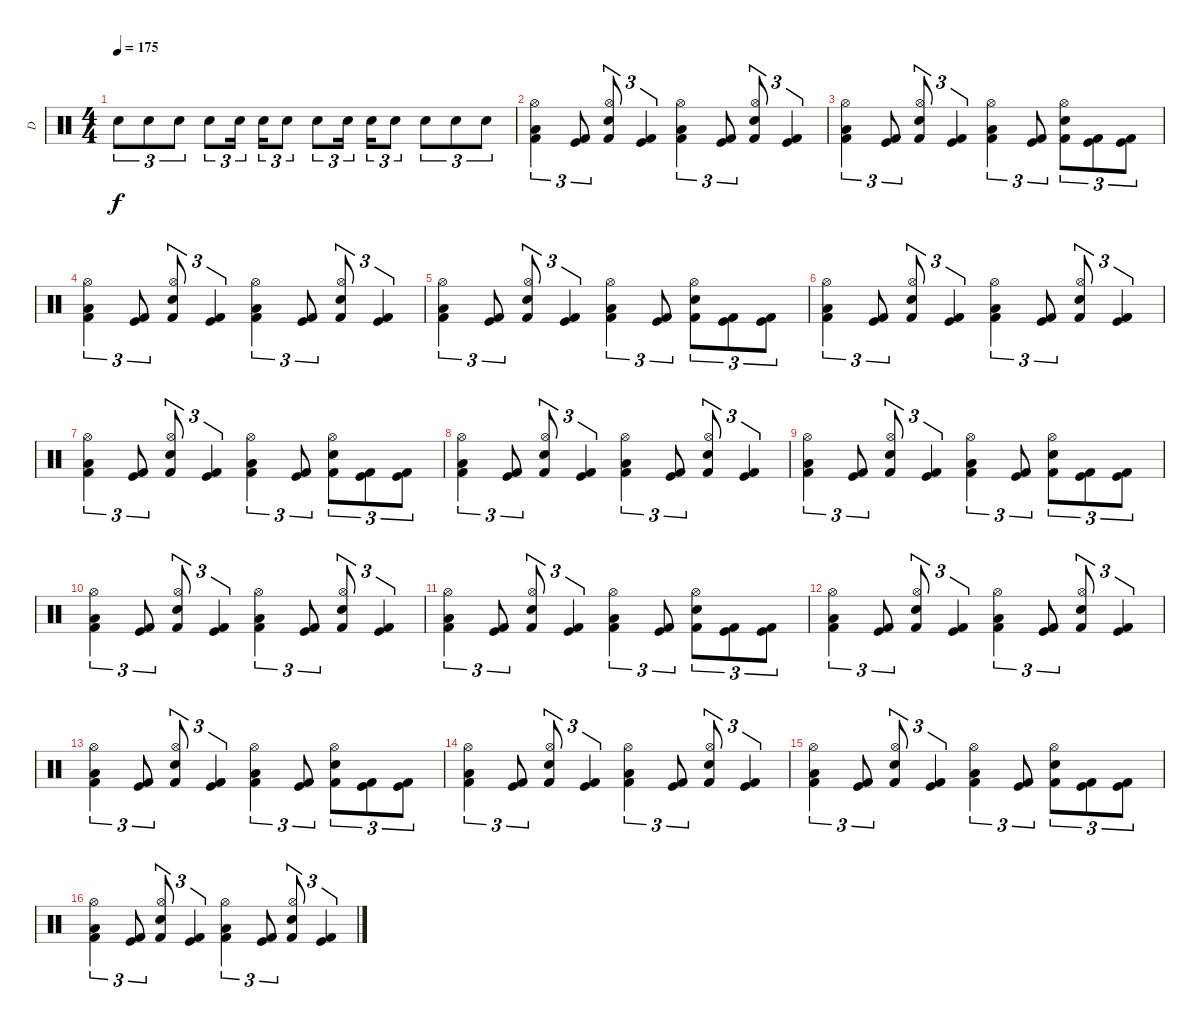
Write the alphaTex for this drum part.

\track ("D" "D") {instrument percussion}
\staff {score}
\articulation defaults
\ts (4 4)
\tempo 175
\clef neutral
\ks c "Electric Snare (hit)".8{tu (3 2) dy f} "Electric Snare (hit)".8{tu (3 2)} "Electric Snare (hit)".8{tu (3 2)} "Electric Snare (hit)".8{tu (3 2)} "Electric Snare (hit)".16{tu (3 2)} "Electric Snare (hit)".16{tu (3 2)} "Electric Snare (hit)".8{tu (3 2)} "Electric Snare (hit)".8{tu (3 2)} "Electric Snare (hit)".16{tu (3 2)} "Electric Snare (hit)".16{tu (3 2)} "Electric Snare (hit)".8{tu (3 2)} "Electric Snare (hit)".8{tu (3 2)} "Electric Snare (hit)".8{tu (3 2)} "Electric Snare (hit)".8{tu (3 2)}
|
("Hi-Hat (open)" "Low Floor Tom (hit)" "Kick (hit) 2").4{tu (3 2)} ("Kick (hit)" "Kick (hit) 2").8{tu (3 2)} ("Hi-Hat (open)" "Electric Snare (hit)" "Kick (hit) 2").8{tu (3 2)} ("Kick (hit)" "Kick (hit) 2").4{tu (3 2)} ("Hi-Hat (open)" "Low Floor Tom (hit)" "Kick (hit) 2").4{tu (3 2)} ("Kick (hit)" "Kick (hit) 2").8{tu (3 2)} ("Hi-Hat (open)" "Electric Snare (hit)" "Kick (hit) 2").8{tu (3 2)} ("Kick (hit)" "Kick (hit) 2").4{tu (3 2)} |
("Hi-Hat (open)" "Low Floor Tom (hit)" "Kick (hit) 2").4{tu (3 2)} ("Kick (hit)" "Kick (hit) 2").8{tu (3 2)} ("Hi-Hat (open)" "Electric Snare (hit)" "Kick (hit) 2").8{tu (3 2)} ("Kick (hit)" "Kick (hit) 2").4{tu (3 2)} ("Hi-Hat (open)" "Low Floor Tom (hit)" "Kick (hit) 2").4{tu (3 2)} ("Kick (hit)" "Kick (hit) 2").8{tu (3 2)} ("Hi-Hat (open)" "Snare (hit) 2" "Kick (hit) 2").8{tu (3 2)} ("Kick (hit)" "Kick (hit) 2").8{tu (3 2)} ("Kick (hit)" "Kick (hit) 2").8{tu (3 2)} |
("Hi-Hat (open)" "Low Floor Tom (hit)" "Kick (hit) 2").4{tu (3 2)} ("Kick (hit)" "Kick (hit) 2").8{tu (3 2)} ("Hi-Hat (open)" "Electric Snare (hit)" "Kick (hit) 2").8{tu (3 2)} ("Kick (hit)" "Kick (hit) 2").4{tu (3 2)} ("Hi-Hat (open)" "Low Floor Tom (hit)" "Kick (hit) 2").4{tu (3 2)} ("Kick (hit)" "Kick (hit) 2").8{tu (3 2)} ("Hi-Hat (open)" "Electric Snare (hit)" "Kick (hit) 2").8{tu (3 2)} ("Kick (hit)" "Kick (hit) 2").4{tu (3 2)} |
("Hi-Hat (open)" "Low Floor Tom (hit)" "Kick (hit) 2").4{tu (3 2)} ("Kick (hit)" "Kick (hit) 2").8{tu (3 2)} ("Hi-Hat (open)" "Electric Snare (hit)" "Kick (hit) 2").8{tu (3 2)} ("Kick (hit)" "Kick (hit) 2").4{tu (3 2)} ("Hi-Hat (open)" "Low Floor Tom (hit)" "Kick (hit) 2").4{tu (3 2)} ("Kick (hit)" "Kick (hit) 2").8{tu (3 2)} ("Hi-Hat (open)" "Snare (hit) 2" "Kick (hit) 2").8{tu (3 2)} ("Kick (hit)" "Kick (hit) 2").8{tu (3 2)} ("Kick (hit)" "Kick (hit) 2").8{tu (3 2)} |
("Hi-Hat (open)" "Low Floor Tom (hit)" "Kick (hit) 2").4{tu (3 2)} ("Kick (hit)" "Kick (hit) 2").8{tu (3 2)} ("Hi-Hat (open)" "Electric Snare (hit)" "Kick (hit) 2").8{tu (3 2)} ("Kick (hit)" "Kick (hit) 2").4{tu (3 2)} ("Hi-Hat (open)" "Low Floor Tom (hit)" "Kick (hit) 2").4{tu (3 2)} ("Kick (hit)" "Kick (hit) 2").8{tu (3 2)} ("Hi-Hat (open)" "Electric Snare (hit)" "Kick (hit) 2").8{tu (3 2)} ("Kick (hit)" "Kick (hit) 2").4{tu (3 2)} |
("Hi-Hat (open)" "Low Floor Tom (hit)" "Kick (hit) 2").4{tu (3 2)} ("Kick (hit)" "Kick (hit) 2").8{tu (3 2)} ("Hi-Hat (open)" "Electric Snare (hit)" "Kick (hit) 2").8{tu (3 2)} ("Kick (hit)" "Kick (hit) 2").4{tu (3 2)} ("Hi-Hat (open)" "Low Floor Tom (hit)" "Kick (hit) 2").4{tu (3 2)} ("Kick (hit)" "Kick (hit) 2").8{tu (3 2)} ("Hi-Hat (open)" "Snare (hit) 2" "Kick (hit) 2").8{tu (3 2)} ("Kick (hit)" "Kick (hit) 2").8{tu (3 2)} ("Kick (hit)" "Kick (hit) 2").8{tu (3 2)} |
("Hi-Hat (open)" "Low Floor Tom (hit)" "Kick (hit) 2").4{tu (3 2)} ("Kick (hit)" "Kick (hit) 2").8{tu (3 2)} ("Hi-Hat (open)" "Electric Snare (hit)" "Kick (hit) 2").8{tu (3 2)} ("Kick (hit)" "Kick (hit) 2").4{tu (3 2)} ("Hi-Hat (open)" "Low Floor Tom (hit)" "Kick (hit) 2").4{tu (3 2)} ("Kick (hit)" "Kick (hit) 2").8{tu (3 2)} ("Hi-Hat (open)" "Electric Snare (hit)" "Kick (hit) 2").8{tu (3 2)} ("Kick (hit)" "Kick (hit) 2").4{tu (3 2)} |
("Hi-Hat (open)" "Low Floor Tom (hit)" "Kick (hit) 2").4{tu (3 2)} ("Kick (hit)" "Kick (hit) 2").8{tu (3 2)} ("Hi-Hat (open)" "Electric Snare (hit)" "Kick (hit) 2").8{tu (3 2)} ("Kick (hit)" "Kick (hit) 2").4{tu (3 2)} ("Hi-Hat (open)" "Low Floor Tom (hit)" "Kick (hit) 2").4{tu (3 2)} ("Kick (hit)" "Kick (hit) 2").8{tu (3 2)} ("Hi-Hat (open)" "Snare (hit) 2" "Kick (hit) 2").8{tu (3 2)} ("Kick (hit)" "Kick (hit) 2").8{tu (3 2)} ("Kick (hit)" "Kick (hit) 2").8{tu (3 2)} |
("Hi-Hat (open)" "Low Floor Tom (hit)" "Kick (hit) 2").4{tu (3 2)} ("Kick (hit)" "Kick (hit) 2").8{tu (3 2)} ("Hi-Hat (open)" "Electric Snare (hit)" "Kick (hit) 2").8{tu (3 2)} ("Kick (hit)" "Kick (hit) 2").4{tu (3 2)} ("Hi-Hat (open)" "Low Floor Tom (hit)" "Kick (hit) 2").4{tu (3 2)} ("Kick (hit)" "Kick (hit) 2").8{tu (3 2)} ("Hi-Hat (open)" "Electric Snare (hit)" "Kick (hit) 2").8{tu (3 2)} ("Kick (hit)" "Kick (hit) 2").4{tu (3 2)} |
("Hi-Hat (open)" "Low Floor Tom (hit)" "Kick (hit) 2").4{tu (3 2)} ("Kick (hit)" "Kick (hit) 2").8{tu (3 2)} ("Hi-Hat (open)" "Electric Snare (hit)" "Kick (hit) 2").8{tu (3 2)} ("Kick (hit)" "Kick (hit) 2").4{tu (3 2)} ("Hi-Hat (open)" "Low Floor Tom (hit)" "Kick (hit) 2").4{tu (3 2)} ("Kick (hit)" "Kick (hit) 2").8{tu (3 2)} ("Hi-Hat (open)" "Snare (hit) 2" "Kick (hit) 2").8{tu (3 2)} ("Kick (hit)" "Kick (hit) 2").8{tu (3 2)} ("Kick (hit)" "Kick (hit) 2").8{tu (3 2)} |
("Hi-Hat (open)" "Low Floor Tom (hit)" "Kick (hit) 2").4{tu (3 2)} ("Kick (hit)" "Kick (hit) 2").8{tu (3 2)} ("Hi-Hat (open)" "Electric Snare (hit)" "Kick (hit) 2").8{tu (3 2)} ("Kick (hit)" "Kick (hit) 2").4{tu (3 2)} ("Hi-Hat (open)" "Low Floor Tom (hit)" "Kick (hit) 2").4{tu (3 2)} ("Kick (hit)" "Kick (hit) 2").8{tu (3 2)} ("Hi-Hat (open)" "Electric Snare (hit)" "Kick (hit) 2").8{tu (3 2)} ("Kick (hit)" "Kick (hit) 2").4{tu (3 2)} |
("Hi-Hat (open)" "Low Floor Tom (hit)" "Kick (hit) 2").4{tu (3 2)} ("Kick (hit)" "Kick (hit) 2").8{tu (3 2)} ("Hi-Hat (open)" "Electric Snare (hit)" "Kick (hit) 2").8{tu (3 2)} ("Kick (hit)" "Kick (hit) 2").4{tu (3 2)} ("Hi-Hat (open)" "Low Floor Tom (hit)" "Kick (hit) 2").4{tu (3 2)} ("Kick (hit)" "Kick (hit) 2").8{tu (3 2)} ("Hi-Hat (open)" "Snare (hit) 2" "Kick (hit) 2").8{tu (3 2)} ("Kick (hit)" "Kick (hit) 2").8{tu (3 2)} ("Kick (hit)" "Kick (hit) 2").8{tu (3 2)} |
("Hi-Hat (open)" "Low Floor Tom (hit)" "Kick (hit) 2").4{tu (3 2)} ("Kick (hit)" "Kick (hit) 2").8{tu (3 2)} ("Hi-Hat (open)" "Electric Snare (hit)" "Kick (hit) 2").8{tu (3 2)} ("Kick (hit)" "Kick (hit) 2").4{tu (3 2)} ("Hi-Hat (open)" "Low Floor Tom (hit)" "Kick (hit) 2").4{tu (3 2)} ("Kick (hit)" "Kick (hit) 2").8{tu (3 2)} ("Hi-Hat (open)" "Electric Snare (hit)" "Kick (hit) 2").8{tu (3 2)} ("Kick (hit)" "Kick (hit) 2").4{tu (3 2)} |
("Hi-Hat (open)" "Low Floor Tom (hit)" "Kick (hit) 2").4{tu (3 2)} ("Kick (hit)" "Kick (hit) 2").8{tu (3 2)} ("Hi-Hat (open)" "Electric Snare (hit)" "Kick (hit) 2").8{tu (3 2)} ("Kick (hit)" "Kick (hit) 2").4{tu (3 2)} ("Hi-Hat (open)" "Low Floor Tom (hit)" "Kick (hit) 2").4{tu (3 2)} ("Kick (hit)" "Kick (hit) 2").8{tu (3 2)} ("Hi-Hat (open)" "Snare (hit) 2" "Kick (hit) 2").8{tu (3 2)} ("Kick (hit)" "Kick (hit) 2").8{tu (3 2)} ("Kick (hit)" "Kick (hit) 2").8{tu (3 2)} |
("Hi-Hat (open)" "Low Floor Tom (hit)" "Kick (hit) 2").4{tu (3 2)} ("Kick (hit)" "Kick (hit) 2").8{tu (3 2)} ("Hi-Hat (open)" "Electric Snare (hit)" "Kick (hit) 2").8{tu (3 2)} ("Kick (hit)" "Kick (hit) 2").4{tu (3 2)} ("Hi-Hat (open)" "Low Floor Tom (hit)" "Kick (hit) 2").4{tu (3 2)} ("Kick (hit)" "Kick (hit) 2").8{tu (3 2)} ("Hi-Hat (open)" "Electric Snare (hit)" "Kick (hit) 2").8{tu (3 2)} ("Kick (hit)" "Kick (hit) 2").4{tu (3 2)}
